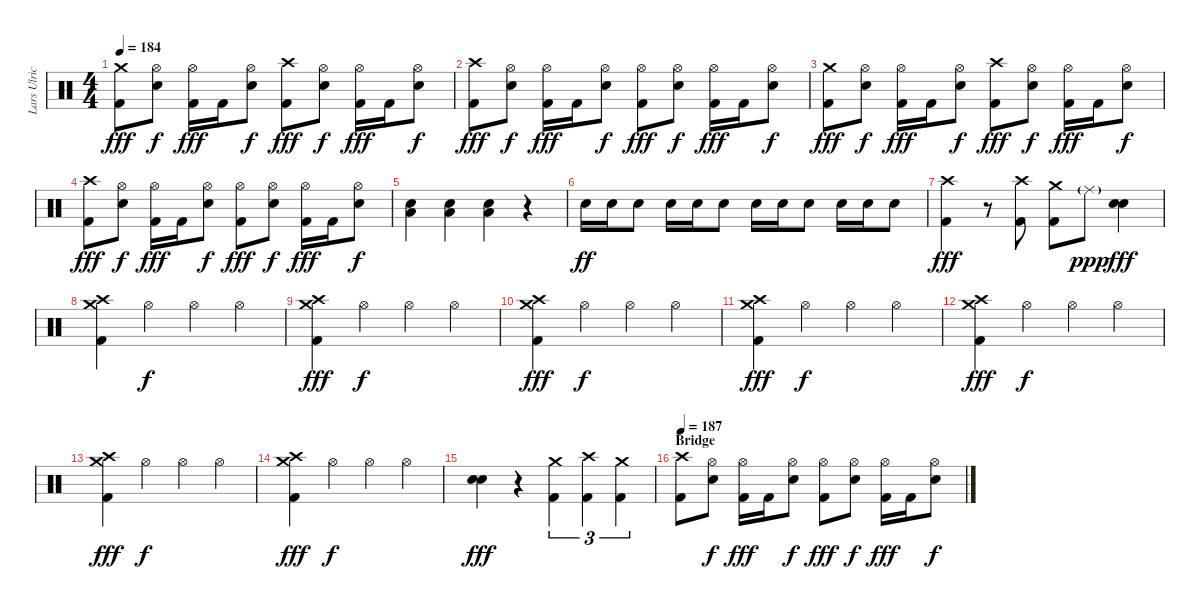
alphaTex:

\track ("Lars Ulrich" "Lars Ulric") {instrument percussion}
\staff {score}
\articulation defaults
\ts (4 4)
\tempo 184
\clef neutral
\ks c
("Crash medium (hit)" "Kick (hit) 2").8{dy fff} ("Hi-Hat (open)" "Electric Snare (hit)").8{dy f} ("Hi-Hat (open)" "Kick (hit) 2").16{dy fff} "Kick (hit) 2".16 ("Hi-Hat (open)" "Electric Snare (hit)").8{dy f} ("Crash high (hit)" "Kick (hit) 2").8{dy fff} ("Hi-Hat (open)" "Electric Snare (hit)").8{dy f} ("Hi-Hat (open)" "Kick (hit) 2").16{dy fff} "Kick (hit) 2".16 ("Hi-Hat (open)" "Electric Snare (hit)").8{dy f} |
("Crash high (hit)" "Kick (hit) 2").8{dy fff} ("Hi-Hat (open)" "Electric Snare (hit)").8{dy f} ("Hi-Hat (open)" "Kick (hit) 2").16{dy fff} "Kick (hit) 2".16 ("Hi-Hat (open)" "Electric Snare (hit)").8{dy f} ("Hi-Hat (open)" "Kick (hit) 2").8{dy fff} ("Hi-Hat (open)" "Electric Snare (hit)").8{dy f} ("Hi-Hat (open)" "Kick (hit) 2").16{dy fff} "Kick (hit) 2".16 ("Hi-Hat (open)" "Electric Snare (hit)").8{dy f} |
("Crash medium (hit)" "Kick (hit) 2").8{dy fff} ("Hi-Hat (open)" "Electric Snare (hit)").8{dy f} ("Hi-Hat (open)" "Kick (hit) 2").16{dy fff} "Kick (hit) 2".16 ("Hi-Hat (open)" "Electric Snare (hit)").8{dy f} ("Crash high (hit)" "Kick (hit) 2").8{dy fff} ("Hi-Hat (open)" "Electric Snare (hit)").8{dy f} ("Hi-Hat (open)" "Kick (hit) 2").16{dy fff} "Kick (hit) 2".16 ("Hi-Hat (open)" "Electric Snare (hit)").8{dy f} |
("Crash high (hit)" "Kick (hit) 2").8{dy fff} ("Hi-Hat (open)" "Electric Snare (hit)").8{dy f} ("Hi-Hat (open)" "Kick (hit) 2").16{dy fff} "Kick (hit) 2".16 ("Hi-Hat (open)" "Electric Snare (hit)").8{dy f} ("Hi-Hat (open)" "Kick (hit) 2").8{dy fff} ("Hi-Hat (open)" "Electric Snare (hit)").8{dy f} ("Hi-Hat (open)" "Kick (hit) 2").16{dy fff} "Kick (hit) 2".16 ("Hi-Hat (open)" "Electric Snare (hit)").8{dy f} |
("Electric Snare (hit)" "Low Floor Tom (hit)").4 ("Electric Snare (hit)" "Low Floor Tom (hit)").4 ("Electric Snare (hit)" "Low Floor Tom (hit)").4 r.4 |
"Electric Snare (hit)".16{dy ff} "Electric Snare (hit)".16 "Electric Snare (hit)".8 "Electric Snare (hit)".16 "Electric Snare (hit)".16 "Electric Snare (hit)".8 "Electric Snare (hit)".16 "Electric Snare (hit)".16 "Electric Snare (hit)".8 "Electric Snare (hit)".16 "Electric Snare (hit)".16 "Electric Snare (hit)".8 |
("Crash high (hit)" "Kick (hit) 2").4{dy fff} r.8 ("Crash high (hit)" "Kick (hit) 2").8 ("Crash medium (hit)" "Kick (hit) 2").8 "Ride (middle)"{g}.8{dy ppp} ("Electric Snare (hit)" "Electric Snare (hit)").4{bu 120 dy fff} |
("Crash medium (hit)" "Crash high (hit)" "Kick (hit) 2").4 "Hi-Hat (open)".4{dy f} "Hi-Hat (open)".4 "Hi-Hat (open)".4 |
("Crash high (hit)" "Crash medium (hit)" "Kick (hit) 2").4{dy fff} "Hi-Hat (open)".4{dy f} "Hi-Hat (open)".4 "Hi-Hat (open)".4 |
("Crash medium (hit)" "Crash high (hit)" "Kick (hit) 2").4{dy fff} "Hi-Hat (open)".4{dy f} "Hi-Hat (open)".4 "Hi-Hat (open)".4 |
("Crash high (hit)" "Crash medium (hit)" "Kick (hit) 2").4{dy fff} "Hi-Hat (open)".4{dy f} "Hi-Hat (open)".4 "Hi-Hat (open)".4 |
("Crash medium (hit)" "Crash high (hit)" "Kick (hit) 2").4{dy fff} "Hi-Hat (open)".4{dy f} "Hi-Hat (open)".4 "Hi-Hat (open)".4 |
("Crash high (hit)" "Crash medium (hit)" "Kick (hit) 2").4{dy fff} "Hi-Hat (open)".4{dy f} "Hi-Hat (open)".4 "Hi-Hat (open)".4 |
("Crash medium (hit)" "Crash high (hit)" "Kick (hit) 2").4{dy fff} "Hi-Hat (open)".4{dy f} "Hi-Hat (open)".4 "Hi-Hat (open)".4 |
("Electric Snare (hit)" "Electric Snare (hit)").4{bu 120 dy fff} r.4 ("Crash medium (hit)" "Kick (hit) 2").4{tu (3 2)} ("Crash high (hit)" "Kick (hit) 2").4{tu (3 2)} ("Crash medium (hit)" "Kick (hit) 2").4{tu (3 2)} |
\section ("" "Bridge")
\tempo 187
("Crash high (hit)" "Kick (hit) 2").8 ("Hi-Hat (open)" "Electric Snare (hit)").8{dy f} ("Hi-Hat (open)" "Kick (hit) 2").16{dy fff} "Kick (hit) 2".16 ("Hi-Hat (open)" "Electric Snare (hit)").8{dy f} ("Hi-Hat (open)" "Kick (hit) 2").8{dy fff} ("Hi-Hat (open)" "Electric Snare (hit)").8{dy f} ("Hi-Hat (open)" "Kick (hit) 2").16{dy fff} "Kick (hit) 2".16 ("Hi-Hat (open)" "Electric Snare (hit)").8{dy f}
